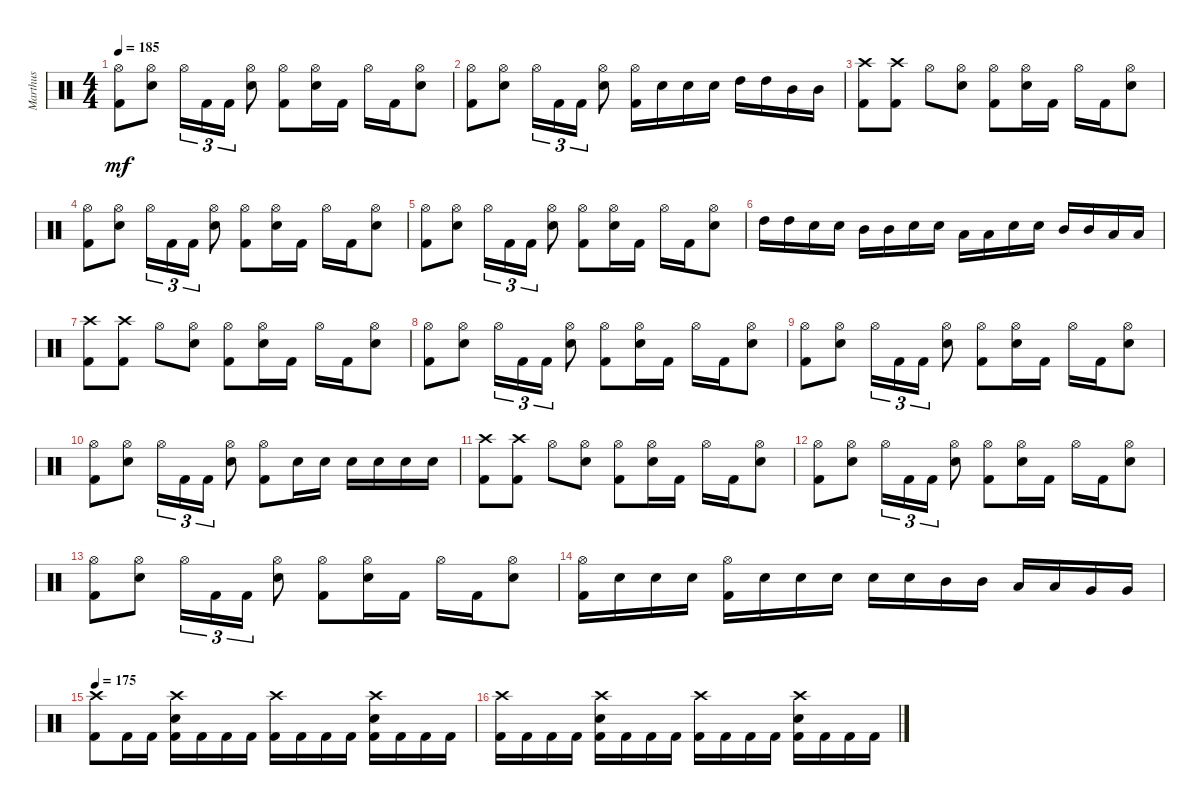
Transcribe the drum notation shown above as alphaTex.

\track ("Marthus" "Marthus") {instrument percussion}
\staff {score}
\articulation defaults
\ts (4 4)
\tempo 185
\clef neutral
\ks c
("Hi-Hat (open)" "Kick (hit) 2").8{dy mf} ("Hi-Hat (open)" "Electric Snare (hit)").8 "Hi-Hat (open)".16{tu (3 2)} "Kick (hit) 2".16{tu (3 2)} "Kick (hit) 2".16{tu (3 2)} ("Hi-Hat (open)" "Electric Snare (hit)").8 ("Hi-Hat (open)" "Kick (hit) 2").8 ("Hi-Hat (open)" "Electric Snare (hit)").16 "Kick (hit) 2".16 "Hi-Hat (open)".16 "Kick (hit) 2".16 ("Hi-Hat (open)" "Electric Snare (hit)").8 |
("Hi-Hat (open)" "Kick (hit) 2").8 ("Hi-Hat (open)" "Electric Snare (hit)").8 "Hi-Hat (open)".16{tu (3 2)} "Kick (hit) 2".16{tu (3 2)} "Kick (hit) 2".16{tu (3 2)} ("Hi-Hat (open)" "Electric Snare (hit)").8 ("Hi-Hat (open)" "Kick (hit) 2").16 "Electric Snare (hit)".16 "Electric Snare (hit)".16 "Electric Snare (hit)".16 "High Tom (hit)".16 "High Tom (hit)".16 "Mid Tom (hit)".16 "Mid Tom (hit)".16 |
("Crash high (hit)" "Kick (hit) 2").8 ("Crash high (hit)" "Kick (hit) 2").8 "Hi-Hat (open)".8 ("Hi-Hat (open)" "Electric Snare (hit)").8 ("Hi-Hat (open)" "Kick (hit) 2").8 ("Hi-Hat (open)" "Electric Snare (hit)").16 "Kick (hit) 2".16 "Hi-Hat (open)".16 "Kick (hit) 2".16 ("Hi-Hat (open)" "Electric Snare (hit)").8 |
("Hi-Hat (open)" "Kick (hit) 2").8 ("Hi-Hat (open)" "Electric Snare (hit)").8 "Hi-Hat (open)".16{tu (3 2)} "Kick (hit) 2".16{tu (3 2)} "Kick (hit) 2".16{tu (3 2)} ("Hi-Hat (open)" "Electric Snare (hit)").8 ("Hi-Hat (open)" "Kick (hit) 2").8 ("Hi-Hat (open)" "Electric Snare (hit)").16 "Kick (hit) 2".16 "Hi-Hat (open)".16 "Kick (hit) 2".16 ("Hi-Hat (open)" "Electric Snare (hit)").8 |
("Hi-Hat (open)" "Kick (hit) 2").8 ("Hi-Hat (open)" "Electric Snare (hit)").8 "Hi-Hat (open)".16{tu (3 2)} "Kick (hit) 2".16{tu (3 2)} "Kick (hit) 2".16{tu (3 2)} ("Hi-Hat (open)" "Electric Snare (hit)").8 ("Hi-Hat (open)" "Kick (hit) 2").8 ("Hi-Hat (open)" "Electric Snare (hit)").16 "Kick (hit) 2".16 "Hi-Hat (open)".16 "Kick (hit) 2".16 ("Hi-Hat (open)" "Electric Snare (hit)").8 |
"High Tom (hit)".16 "High Tom (hit)".16 "Electric Snare (hit)".16 "Electric Snare (hit)".16 "Mid Tom (hit)".16 "Mid Tom (hit)".16 "Electric Snare (hit)".16 "Electric Snare (hit)".16 "Low Tom (hit)".16 "Low Tom (hit)".16 "Electric Snare (hit)".16 "Electric Snare (hit)".16 "Mid Tom (hit)".16 "Mid Tom (hit)".16 "Low Tom (hit)".16 "Low Tom (hit)".16 |
("Crash high (hit)" "Kick (hit) 2").8 ("Crash high (hit)" "Kick (hit) 2").8 "Hi-Hat (open)".8 ("Hi-Hat (open)" "Electric Snare (hit)").8 ("Hi-Hat (open)" "Kick (hit) 2").8 ("Hi-Hat (open)" "Electric Snare (hit)").16 "Kick (hit) 2".16 "Hi-Hat (open)".16 "Kick (hit) 2".16 ("Hi-Hat (open)" "Electric Snare (hit)").8 |
("Hi-Hat (open)" "Kick (hit) 2").8 ("Hi-Hat (open)" "Electric Snare (hit)").8 "Hi-Hat (open)".16{tu (3 2)} "Kick (hit) 2".16{tu (3 2)} "Kick (hit) 2".16{tu (3 2)} ("Hi-Hat (open)" "Electric Snare (hit)").8 ("Hi-Hat (open)" "Kick (hit) 2").8 ("Hi-Hat (open)" "Electric Snare (hit)").16 "Kick (hit) 2".16 "Hi-Hat (open)".16 "Kick (hit) 2".16 ("Hi-Hat (open)" "Electric Snare (hit)").8 |
("Hi-Hat (open)" "Kick (hit) 2").8 ("Hi-Hat (open)" "Electric Snare (hit)").8 "Hi-Hat (open)".16{tu (3 2)} "Kick (hit) 2".16{tu (3 2)} "Kick (hit) 2".16{tu (3 2)} ("Hi-Hat (open)" "Electric Snare (hit)").8 ("Hi-Hat (open)" "Kick (hit) 2").8 ("Hi-Hat (open)" "Electric Snare (hit)").16 "Kick (hit) 2".16 "Hi-Hat (open)".16 "Kick (hit) 2".16 ("Hi-Hat (open)" "Electric Snare (hit)").8 |
("Hi-Hat (open)" "Kick (hit) 2").8 ("Hi-Hat (open)" "Electric Snare (hit)").8 "Hi-Hat (open)".16{tu (3 2)} "Kick (hit) 2".16{tu (3 2)} "Kick (hit) 2".16{tu (3 2)} ("Hi-Hat (open)" "Electric Snare (hit)").8 ("Hi-Hat (open)" "Kick (hit) 2").8 "Electric Snare (hit)".16 "Electric Snare (hit)".16 "Electric Snare (hit)".16 "Electric Snare (hit)".16 "Electric Snare (hit)".16 "Electric Snare (hit)".16 |
("Crash high (hit)" "Kick (hit) 2").8 ("Crash high (hit)" "Kick (hit) 2").8 "Hi-Hat (open)".8 ("Hi-Hat (open)" "Electric Snare (hit)").8 ("Hi-Hat (open)" "Kick (hit) 2").8 ("Hi-Hat (open)" "Electric Snare (hit)").16 "Kick (hit) 2".16 "Hi-Hat (open)".16 "Kick (hit) 2".16 ("Hi-Hat (open)" "Electric Snare (hit)").8 |
("Hi-Hat (open)" "Kick (hit) 2").8 ("Hi-Hat (open)" "Electric Snare (hit)").8 "Hi-Hat (open)".16{tu (3 2)} "Kick (hit) 2".16{tu (3 2)} "Kick (hit) 2".16{tu (3 2)} ("Hi-Hat (open)" "Electric Snare (hit)").8 ("Hi-Hat (open)" "Kick (hit) 2").8 ("Hi-Hat (open)" "Electric Snare (hit)").16 "Kick (hit) 2".16 "Hi-Hat (open)".16 "Kick (hit) 2".16 ("Hi-Hat (open)" "Electric Snare (hit)").8 |
("Hi-Hat (open)" "Kick (hit) 2").8 ("Hi-Hat (open)" "Electric Snare (hit)").8 "Hi-Hat (open)".16{tu (3 2)} "Kick (hit) 2".16{tu (3 2)} "Kick (hit) 2".16{tu (3 2)} ("Hi-Hat (open)" "Electric Snare (hit)").8 ("Hi-Hat (open)" "Kick (hit) 2").8 ("Hi-Hat (open)" "Electric Snare (hit)").16 "Kick (hit) 2".16 "Hi-Hat (open)".16 "Kick (hit) 2".16 ("Hi-Hat (open)" "Electric Snare (hit)").8 |
("Hi-Hat (open)" "Kick (hit) 2").16 "Electric Snare (hit)".16 "Electric Snare (hit)".16 "Electric Snare (hit)".16 ("Hi-Hat (open)" "Kick (hit) 2").16 "Electric Snare (hit)".16 "Electric Snare (hit)".16 "Electric Snare (hit)".16 "Electric Snare (hit)".16 "Electric Snare (hit)".16 "Mid Tom (hit)".16 "Mid Tom (hit)".16 "Low Tom (hit)".16 "Low Tom (hit)".16 "Very Low Tom (hit)".16 "Very Low Tom (hit)".16 |
\tempo 175
("Crash high (hit)" "Kick (hit) 2").8 "Kick (hit) 2".16 "Kick (hit) 2".16 ("Crash high (hit)" "Electric Snare (hit)" "Kick (hit) 2").16 "Kick (hit) 2".16 "Kick (hit) 2".16 "Kick (hit) 2".16 ("Crash high (hit)" "Kick (hit) 2").16 "Kick (hit) 2".16 "Kick (hit) 2".16 "Kick (hit) 2".16 ("Crash high (hit)" "Electric Snare (hit)" "Kick (hit) 2").16 "Kick (hit) 2".16 "Kick (hit) 2".16 "Kick (hit) 2".16 |
("Crash high (hit)" "Kick (hit) 2").16 "Kick (hit) 2".16 "Kick (hit) 2".16 "Kick (hit) 2".16 ("Crash high (hit)" "Electric Snare (hit)" "Kick (hit) 2").16 "Kick (hit) 2".16 "Kick (hit) 2".16 "Kick (hit) 2".16 ("Crash high (hit)" "Kick (hit) 2").16 "Kick (hit) 2".16 "Kick (hit) 2".16 "Kick (hit) 2".16 ("Crash high (hit)" "Electric Snare (hit)" "Kick (hit) 2").16 "Kick (hit) 2".16 "Kick (hit) 2".16 "Kick (hit) 2".16
